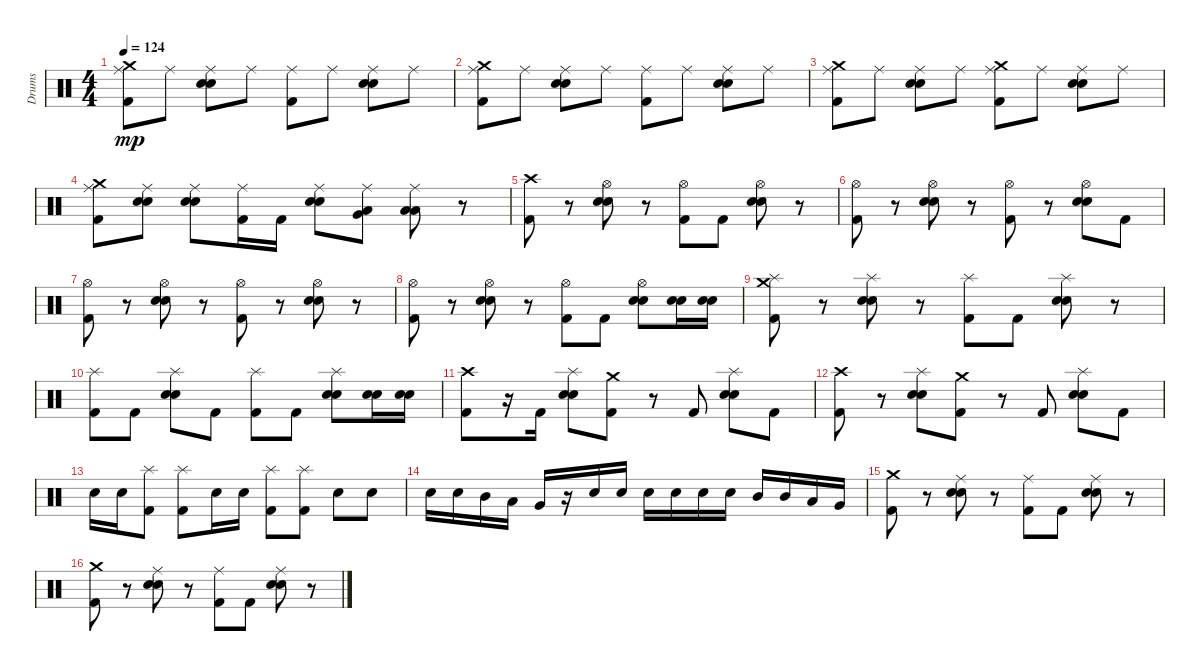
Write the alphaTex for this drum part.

\track ("Drums" "Drums") {instrument percussion}
\staff {score}
\articulation defaults
\ts (4 4)
\tempo 124
\clef neutral
\ks c
("Kick (hit) 2" "Ride (middle)" "Crash medium (hit)").8{dy mp} "Ride (middle)".8 ("Snare (hit) 2" "Electric Snare (hit)" "Ride (middle)").8 "Ride (middle)".8 ("Ride (middle)" "Kick (hit) 2").8 "Ride (middle)".8 ("Electric Snare (hit)" "Snare (hit) 2" "Ride (middle)").8 "Ride (middle)".8 |
("Kick (hit) 2" "Crash medium (hit)" "Ride (middle)").8 "Ride (middle)".8 ("Snare (hit) 2" "Ride (middle)" "Electric Snare (hit)").8 "Ride (middle)".8 ("Kick (hit) 2" "Ride (middle)").8 "Ride (middle)".8 ("Snare (hit) 2" "Electric Snare (hit)" "Ride (middle)").8 "Ride (middle)".8 |
("Ride (middle)" "Crash medium (hit)" "Kick (hit) 2").8 "Ride (middle)".8 ("Electric Snare (hit)" "Snare (hit) 2" "Ride (middle)").8 "Ride (middle)".8 ("Kick (hit) 2" "Ride (middle)" "Crash medium (hit)").8 "Ride (middle)".8 ("Electric Snare (hit)" "Ride (middle)" "Snare (hit) 2").8 "Ride (middle)".8 |
("Kick (hit) 2" "Crash medium (hit)" "Ride (middle)").8 ("Electric Snare (hit)" "Snare (hit) 2" "Ride (middle)").8 ("Snare (hit) 2" "Ride (middle)" "Electric Snare (hit)").8 ("Ride (middle)" "Kick (hit) 2").16 "Kick (hit) 2".16 ("Snare (hit) 2" "Electric Snare (hit)" "Ride (middle)").8 ("Ride (middle)" "Very Low Tom (hit)" "Low Tom (hit)").8 ("Ride (middle)" "Low Tom (hit)" "Low Floor Tom (hit)").8 r.8 |
("Kick (hit) 2" "Crash high (hit)").8 r.8 ("Electric Snare (hit)" "Snare (hit) 2" "Hi-Hat (open)").8 r.8 ("Kick (hit) 2" "Hi-Hat (open)").8 "Kick (hit) 2".8 ("Electric Snare (hit)" "Snare (hit) 2" "Hi-Hat (open)").8 r.8 |
("Kick (hit) 2" "Hi-Hat (open)").8 r.8 ("Hi-Hat (open)" "Snare (hit) 2" "Electric Snare (hit)").8 r.8 ("Hi-Hat (open)" "Kick (hit) 2").8 r.8 ("Electric Snare (hit)" "Snare (hit) 2" "Hi-Hat (open)").8 "Kick (hit) 2".8 |
("Hi-Hat (open)" "Kick (hit) 2").8 r.8 ("Electric Snare (hit)" "Snare (hit) 2" "Hi-Hat (open)").8 r.8 ("Kick (hit) 2" "Hi-Hat (open)").8 r.8 ("Snare (hit) 2" "Electric Snare (hit)" "Hi-Hat (open)").8 r.8 |
("Hi-Hat (open)" "Kick (hit) 2").8 r.8 ("Electric Snare (hit)" "Hi-Hat (open)" "Snare (hit) 2").8 r.8 ("Hi-Hat (open)" "Kick (hit) 2").8 "Kick (hit) 2".8 ("Snare (hit) 2" "Hi-Hat (open)" "Electric Snare (hit)").8 ("Snare (hit) 2" "Electric Snare (hit)").16 ("Electric Snare (hit)" "Snare (hit) 2").16 |
("Splash (hit)" "Kick (hit) 2" "Crash medium (hit)").8 r.8 ("Electric Snare (hit)" "Snare (hit) 2" "Splash (hit)").8 r.8 ("Kick (hit) 2" "Splash (hit)").8 "Kick (hit) 2".8 ("Snare (hit) 2" "Electric Snare (hit)" "Splash (hit)").8 r.8 |
("Kick (hit) 2" "Splash (hit)").8 "Kick (hit) 2".8 ("Splash (hit)" "Electric Snare (hit)" "Snare (hit) 2").8 "Kick (hit) 2".8 ("Kick (hit) 2" "Splash (hit)").8 "Kick (hit) 2".8 ("Snare (hit) 2" "Splash (hit)" "Electric Snare (hit)").8 ("Electric Snare (hit)" "Snare (hit) 2").16 ("Snare (hit) 2" "Electric Snare (hit)").16 |
("Kick (hit) 2" "Crash high (hit)").8 r.16 "Kick (hit) 2".16 ("Snare (hit) 2" "Electric Snare (hit)" "Splash (hit)").8 ("Kick (hit) 2" "Crash medium (hit)").8 r.8 "Kick (hit) 2".8 ("Splash (hit)" "Snare (hit) 2" "Electric Snare (hit)").8 "Kick (hit) 2".8 |
("Crash high (hit)" "Kick (hit) 2").8 r.8 ("Electric Snare (hit)" "Splash (hit)" "Snare (hit) 2").8 ("Kick (hit) 2" "Crash medium (hit)").8 r.8 "Kick (hit) 2".8 ("Splash (hit)" "Snare (hit) 2" "Electric Snare (hit)").8 "Kick (hit) 2".8 |
"Electric Snare (hit)".16 "Electric Snare (hit)".16 ("Splash (hit)" "Kick (hit) 2").8 ("Splash (hit)" "Kick (hit) 2").8 "Electric Snare (hit)".16 "Electric Snare (hit)".16 ("Kick (hit) 2" "Splash (hit)").8 ("Splash (hit)" "Kick (hit) 2").8 "Electric Snare (hit)".8 "Electric Snare (hit)".8 |
"Electric Snare (hit)".16 "Electric Snare (hit)".16 "Mid Tom (hit)".16 "Low Tom (hit)".16 "Very Low Tom (hit)".16 r.16 "Electric Snare (hit)".16 "Electric Snare (hit)".16 "Electric Snare (hit)".16 "Electric Snare (hit)".16 "Electric Snare (hit)".16 "Electric Snare (hit)".16 "Mid Tom (hit)".16 "Mid Tom (hit)".16 "Low Tom (hit)".16 "Very Low Tom (hit)".16 |
("Crash medium (hit)" "Kick (hit) 2").8 r.8 ("Snare (hit) 2" "Ride (middle)" "Electric Snare (hit)").8 r.8 ("Ride (middle)" "Kick (hit) 2").8 "Kick (hit) 2".8 ("Ride (middle)" "Electric Snare (hit)" "Snare (hit) 2").8 r.8 |
("Crash medium (hit)" "Kick (hit) 2").8 r.8 ("Snare (hit) 2" "Electric Snare (hit)" "Ride (middle)").8 r.8 ("Kick (hit) 2" "Ride (middle)").8 "Kick (hit) 2".8 ("Ride (middle)" "Snare (hit) 2" "Electric Snare (hit)").8 r.8
